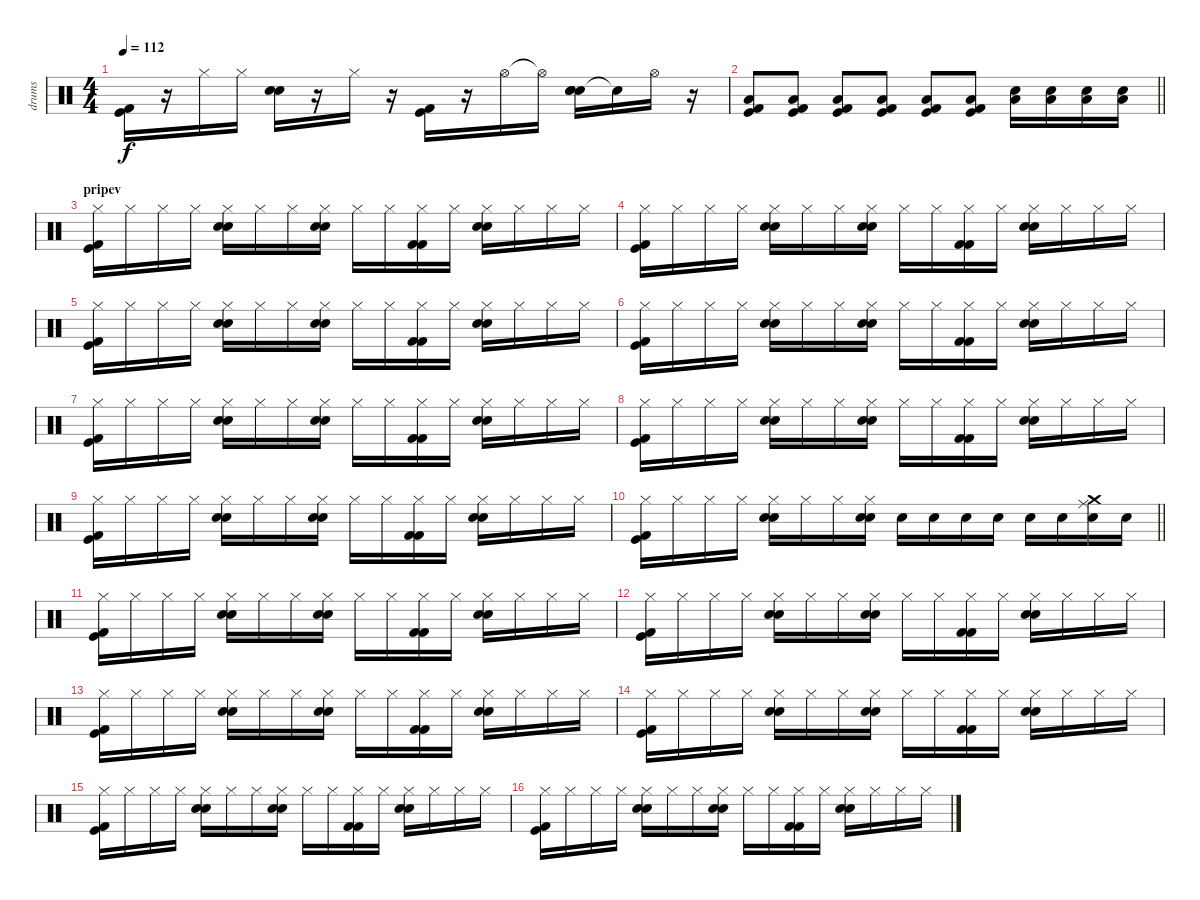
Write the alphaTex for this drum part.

\track ("drums" "drums") {instrument percussion}
\staff {score}
\articulation defaults
\ts (4 4)
\tempo 112
\clef neutral
\ks c
("Kick (hit) 2" "Kick (hit)").16{dy f} r.16 "Hi-Hat (closed)".16 "Hi-Hat (closed)".16 ("Snare (hit) 2" "Electric Snare (hit)").16 r.16 "Hi-Hat (closed)".16 r.16 ("Kick (hit) 2" "Kick (hit)").16 r.16 "Hi-Hat (open)".16 "Hi-Hat (open)"{t}.16 ("Snare (hit) 2" "Electric Snare (hit)" "Snare (hit)"{t}).16 "Snare (hit)"{t}.16 "Hi-Hat (open)".16 r.16 |
\barLineRight lightlight
("Kick (hit)" "Kick (hit) 2" "Low Floor Tom (hit)").8 ("Kick (hit)" "Kick (hit) 2" "Low Floor Tom (hit)").8 ("Kick (hit)" "Kick (hit) 2" "Low Floor Tom (hit)").8 ("Kick (hit)" "Kick (hit) 2" "Low Floor Tom (hit)").8 ("Kick (hit)" "Kick (hit) 2" "Low Floor Tom (hit)").8 ("Kick (hit)" "Kick (hit) 2" "Low Floor Tom (hit)").8 ("Snare (hit) 2" "Low Floor Tom (hit)").16 ("Snare (hit) 2" "Low Floor Tom (hit)").16 ("Snare (hit) 2" "Low Floor Tom (hit)").16 ("Snare (hit) 2" "Low Floor Tom (hit)").16 |
\section ("" "pripev")
("Hi-Hat (closed)" "Kick (hit) 2" "Kick (hit)").16 "Hi-Hat (closed)".16 "Hi-Hat (closed)".16 "Hi-Hat (closed)".16 ("Hi-Hat (closed)" "Snare (hit) 2" "Electric Snare (hit)").16 "Hi-Hat (closed)".16 "Hi-Hat (closed)".16 ("Hi-Hat (closed)" "Snare (hit) 2" "Electric Snare (hit)").16 "Hi-Hat (closed)".16 "Hi-Hat (closed)".16 ("Hi-Hat (closed)" "Kick (hit) 2" "Kick (hit) 2").16 "Hi-Hat (closed)".16 ("Hi-Hat (closed)" "Snare (hit) 2" "Electric Snare (hit)").16 "Hi-Hat (closed)".16 "Hi-Hat (closed)".16 "Hi-Hat (closed)".16 |
("Hi-Hat (closed)" "Kick (hit) 2" "Kick (hit)").16 "Hi-Hat (closed)".16 "Hi-Hat (closed)".16 "Hi-Hat (closed)".16 ("Hi-Hat (closed)" "Snare (hit) 2" "Electric Snare (hit)").16 "Hi-Hat (closed)".16 "Hi-Hat (closed)".16 ("Hi-Hat (closed)" "Snare (hit) 2" "Electric Snare (hit)").16 "Hi-Hat (closed)".16 "Hi-Hat (closed)".16 ("Hi-Hat (closed)" "Kick (hit) 2" "Kick (hit) 2").16 "Hi-Hat (closed)".16 ("Hi-Hat (closed)" "Snare (hit) 2" "Electric Snare (hit)").16 "Hi-Hat (closed)".16 "Hi-Hat (closed)".16 "Hi-Hat (closed)".16 |
("Hi-Hat (closed)" "Kick (hit) 2" "Kick (hit)").16 "Hi-Hat (closed)".16 "Hi-Hat (closed)".16 "Hi-Hat (closed)".16 ("Hi-Hat (closed)" "Snare (hit) 2" "Electric Snare (hit)").16 "Hi-Hat (closed)".16 "Hi-Hat (closed)".16 ("Hi-Hat (closed)" "Snare (hit) 2" "Electric Snare (hit)").16 "Hi-Hat (closed)".16 "Hi-Hat (closed)".16 ("Hi-Hat (closed)" "Kick (hit) 2" "Kick (hit) 2").16 "Hi-Hat (closed)".16 ("Hi-Hat (closed)" "Snare (hit) 2" "Electric Snare (hit)").16 "Hi-Hat (closed)".16 "Hi-Hat (closed)".16 "Hi-Hat (closed)".16 |
("Hi-Hat (closed)" "Kick (hit) 2" "Kick (hit)").16 "Hi-Hat (closed)".16 "Hi-Hat (closed)".16 "Hi-Hat (closed)".16 ("Hi-Hat (closed)" "Snare (hit) 2" "Electric Snare (hit)").16 "Hi-Hat (closed)".16 "Hi-Hat (closed)".16 ("Hi-Hat (closed)" "Snare (hit) 2" "Electric Snare (hit)").16 "Hi-Hat (closed)".16 "Hi-Hat (closed)".16 ("Hi-Hat (closed)" "Kick (hit) 2" "Kick (hit) 2").16 "Hi-Hat (closed)".16 ("Hi-Hat (closed)" "Snare (hit) 2" "Electric Snare (hit)").16 "Hi-Hat (closed)".16 "Hi-Hat (closed)".16 "Hi-Hat (closed)".16 |
("Hi-Hat (closed)" "Kick (hit) 2" "Kick (hit)").16 "Hi-Hat (closed)".16 "Hi-Hat (closed)".16 "Hi-Hat (closed)".16 ("Hi-Hat (closed)" "Snare (hit) 2" "Electric Snare (hit)").16 "Hi-Hat (closed)".16 "Hi-Hat (closed)".16 ("Hi-Hat (closed)" "Snare (hit) 2" "Electric Snare (hit)").16 "Hi-Hat (closed)".16 "Hi-Hat (closed)".16 ("Hi-Hat (closed)" "Kick (hit) 2" "Kick (hit) 2").16 "Hi-Hat (closed)".16 ("Hi-Hat (closed)" "Snare (hit) 2" "Electric Snare (hit)").16 "Hi-Hat (closed)".16 "Hi-Hat (closed)".16 "Hi-Hat (closed)".16 |
("Hi-Hat (closed)" "Kick (hit) 2" "Kick (hit)").16 "Hi-Hat (closed)".16 "Hi-Hat (closed)".16 "Hi-Hat (closed)".16 ("Hi-Hat (closed)" "Snare (hit) 2" "Electric Snare (hit)").16 "Hi-Hat (closed)".16 "Hi-Hat (closed)".16 ("Hi-Hat (closed)" "Snare (hit) 2" "Electric Snare (hit)").16 "Hi-Hat (closed)".16 "Hi-Hat (closed)".16 ("Hi-Hat (closed)" "Kick (hit) 2" "Kick (hit) 2").16 "Hi-Hat (closed)".16 ("Hi-Hat (closed)" "Snare (hit) 2" "Electric Snare (hit)").16 "Hi-Hat (closed)".16 "Hi-Hat (closed)".16 "Hi-Hat (closed)".16 |
("Hi-Hat (closed)" "Kick (hit) 2" "Kick (hit)").16 "Hi-Hat (closed)".16 "Hi-Hat (closed)".16 "Hi-Hat (closed)".16 ("Hi-Hat (closed)" "Snare (hit) 2" "Electric Snare (hit)").16 "Hi-Hat (closed)".16 "Hi-Hat (closed)".16 ("Hi-Hat (closed)" "Snare (hit) 2" "Electric Snare (hit)").16 "Hi-Hat (closed)".16 "Hi-Hat (closed)".16 ("Hi-Hat (closed)" "Kick (hit) 2" "Kick (hit) 2").16 "Hi-Hat (closed)".16 ("Hi-Hat (closed)" "Snare (hit) 2" "Electric Snare (hit)").16 "Hi-Hat (closed)".16 "Hi-Hat (closed)".16 "Hi-Hat (closed)".16 |
\barLineRight lightlight
("Hi-Hat (closed)" "Kick (hit) 2" "Kick (hit)").16 "Hi-Hat (closed)".16 "Hi-Hat (closed)".16 "Hi-Hat (closed)".16 ("Hi-Hat (closed)" "Snare (hit) 2" "Electric Snare (hit)").16 "Hi-Hat (closed)".16 "Hi-Hat (closed)".16 ("Hi-Hat (closed)" "Snare (hit) 2" "Electric Snare (hit)").16 "Snare (hit) 2".16 "Snare (hit) 2".16 "Snare (hit) 2".16 "Snare (hit) 2".16 "Snare (hit) 2".16 "Snare (hit) 2".16 ("Snare (hit) 2" "Ride (middle)" "Crash medium (hit)").16 "Snare (hit) 2".16 |
("Hi-Hat (closed)" "Kick (hit) 2" "Kick (hit)").16 "Hi-Hat (closed)".16 "Hi-Hat (closed)".16 "Hi-Hat (closed)".16 ("Hi-Hat (closed)" "Snare (hit) 2" "Electric Snare (hit)").16 "Hi-Hat (closed)".16 "Hi-Hat (closed)".16 ("Hi-Hat (closed)" "Snare (hit) 2" "Electric Snare (hit)").16 "Hi-Hat (closed)".16 "Hi-Hat (closed)".16 ("Hi-Hat (closed)" "Kick (hit) 2" "Kick (hit) 2").16 "Hi-Hat (closed)".16 ("Hi-Hat (closed)" "Snare (hit) 2" "Electric Snare (hit)").16 "Hi-Hat (closed)".16 "Hi-Hat (closed)".16 "Hi-Hat (closed)".16 |
("Hi-Hat (closed)" "Kick (hit) 2" "Kick (hit)").16 "Hi-Hat (closed)".16 "Hi-Hat (closed)".16 "Hi-Hat (closed)".16 ("Hi-Hat (closed)" "Snare (hit) 2" "Electric Snare (hit)").16 "Hi-Hat (closed)".16 "Hi-Hat (closed)".16 ("Hi-Hat (closed)" "Snare (hit) 2" "Electric Snare (hit)").16 "Hi-Hat (closed)".16 "Hi-Hat (closed)".16 ("Hi-Hat (closed)" "Kick (hit) 2" "Kick (hit) 2").16 "Hi-Hat (closed)".16 ("Hi-Hat (closed)" "Snare (hit) 2" "Electric Snare (hit)").16 "Hi-Hat (closed)".16 "Hi-Hat (closed)".16 "Hi-Hat (closed)".16 |
("Hi-Hat (closed)" "Kick (hit) 2" "Kick (hit)").16 "Hi-Hat (closed)".16 "Hi-Hat (closed)".16 "Hi-Hat (closed)".16 ("Hi-Hat (closed)" "Snare (hit) 2" "Electric Snare (hit)").16 "Hi-Hat (closed)".16 "Hi-Hat (closed)".16 ("Hi-Hat (closed)" "Snare (hit) 2" "Electric Snare (hit)").16 "Hi-Hat (closed)".16 "Hi-Hat (closed)".16 ("Hi-Hat (closed)" "Kick (hit) 2" "Kick (hit) 2").16 "Hi-Hat (closed)".16 ("Hi-Hat (closed)" "Snare (hit) 2" "Electric Snare (hit)").16 "Hi-Hat (closed)".16 "Hi-Hat (closed)".16 "Hi-Hat (closed)".16 |
("Hi-Hat (closed)" "Kick (hit) 2" "Kick (hit)").16 "Hi-Hat (closed)".16 "Hi-Hat (closed)".16 "Hi-Hat (closed)".16 ("Hi-Hat (closed)" "Snare (hit) 2" "Electric Snare (hit)").16 "Hi-Hat (closed)".16 "Hi-Hat (closed)".16 ("Hi-Hat (closed)" "Snare (hit) 2" "Electric Snare (hit)").16 "Hi-Hat (closed)".16 "Hi-Hat (closed)".16 ("Hi-Hat (closed)" "Kick (hit) 2" "Kick (hit) 2").16 "Hi-Hat (closed)".16 ("Hi-Hat (closed)" "Snare (hit) 2" "Electric Snare (hit)").16 "Hi-Hat (closed)".16 "Hi-Hat (closed)".16 "Hi-Hat (closed)".16 |
("Hi-Hat (closed)" "Kick (hit) 2" "Kick (hit)").16 "Hi-Hat (closed)".16 "Hi-Hat (closed)".16 "Hi-Hat (closed)".16 ("Hi-Hat (closed)" "Snare (hit) 2" "Electric Snare (hit)").16 "Hi-Hat (closed)".16 "Hi-Hat (closed)".16 ("Hi-Hat (closed)" "Snare (hit) 2" "Electric Snare (hit)").16 "Hi-Hat (closed)".16 "Hi-Hat (closed)".16 ("Hi-Hat (closed)" "Kick (hit) 2" "Kick (hit) 2").16 "Hi-Hat (closed)".16 ("Hi-Hat (closed)" "Snare (hit) 2" "Electric Snare (hit)").16 "Hi-Hat (closed)".16 "Hi-Hat (closed)".16 "Hi-Hat (closed)".16 |
("Hi-Hat (closed)" "Kick (hit) 2" "Kick (hit)").16 "Hi-Hat (closed)".16 "Hi-Hat (closed)".16 "Hi-Hat (closed)".16 ("Hi-Hat (closed)" "Snare (hit) 2" "Electric Snare (hit)").16 "Hi-Hat (closed)".16 "Hi-Hat (closed)".16 ("Hi-Hat (closed)" "Snare (hit) 2" "Electric Snare (hit)").16 "Hi-Hat (closed)".16 "Hi-Hat (closed)".16 ("Hi-Hat (closed)" "Kick (hit) 2" "Kick (hit) 2").16 "Hi-Hat (closed)".16 ("Hi-Hat (closed)" "Snare (hit) 2" "Electric Snare (hit)").16 "Hi-Hat (closed)".16 "Hi-Hat (closed)".16 "Hi-Hat (closed)".16
